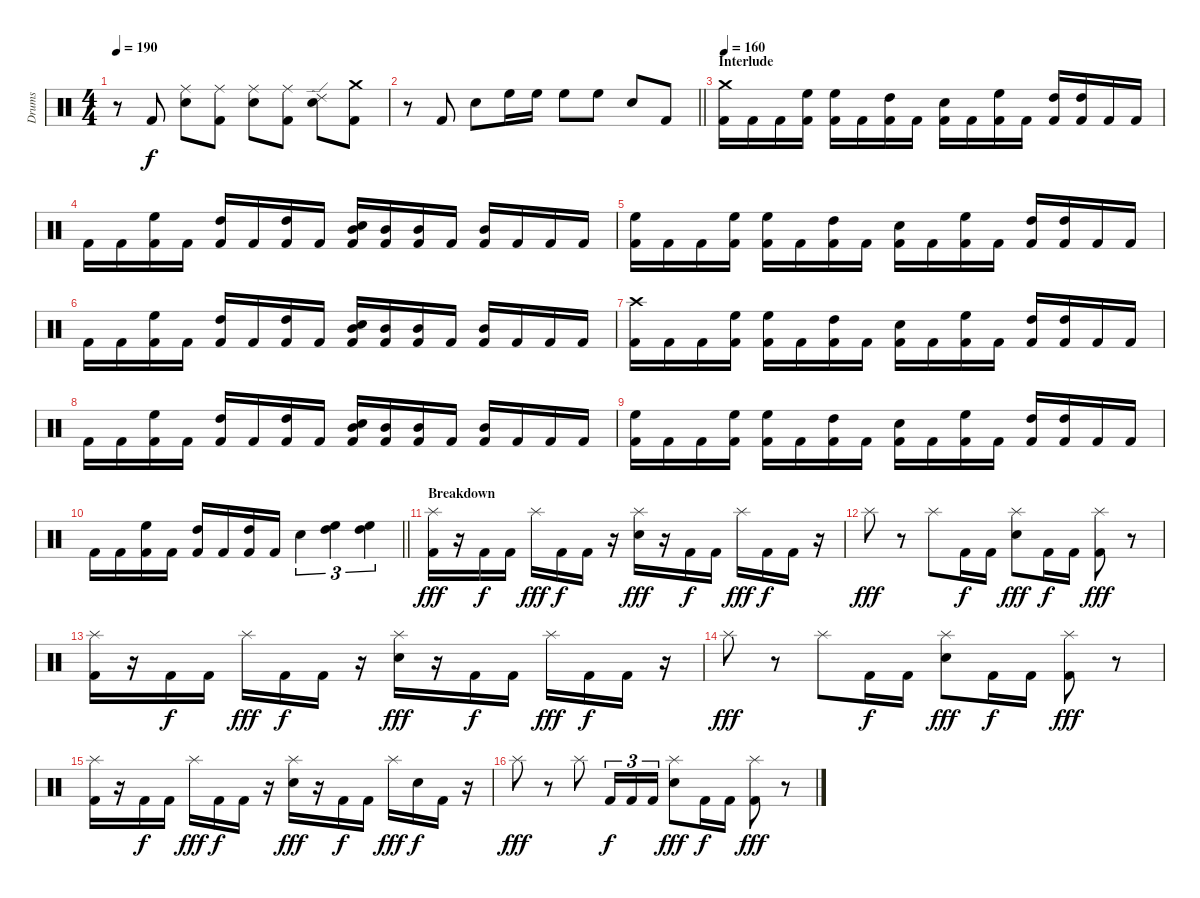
\track ("Drums" "Drums") {instrument percussion}
\staff
\articulation defaults
\ts (4 4)
\tempo 190
\clef neutral
\ks c
r.8{dy f} "Kick (hit) 2".8 ("Ride (middle)" "Electric Snare (hit)").8 ("Ride (middle)" "Kick (hit) 2").8 ("Ride (middle)" "Electric Snare (hit)").8 ("Ride (middle)" "Kick (hit) 2").8 ("Ride (edge) 2" "Electric Snare (hit)").8 ("Crash medium (hit)" "Kick (hit) 2").8 |
\barLineRight lightlight
r.8 "Kick (hit) 2".8 "Electric Snare (hit)".8 "High Floor Tom (hit)".16 "High Floor Tom (hit)".16 "High Floor Tom (hit)".8 "High Floor Tom (hit)".8 "Electric Snare (hit)".8 "Kick (hit) 2".8 |
\section ("" "Interlude")
\tempo 160
("Crash medium (hit)" "Kick (hit) 2").16 "Kick (hit) 2".16 "Kick (hit) 2".16 ("High Floor Tom (hit)" "Kick (hit) 2").16 ("High Floor Tom (hit)" "Kick (hit) 2").16 "Kick (hit) 2".16 ("High Tom (hit)" "Kick (hit) 2").16 "Kick (hit) 2".16 ("Electric Snare (hit)" "Kick (hit) 2").16 "Kick (hit) 2".16 ("High Floor Tom (hit)" "Kick (hit) 2").16 "Kick (hit) 2".16 ("High Tom (hit)" "Kick (hit) 2").16 ("High Tom (hit)" "Kick (hit) 2").16 "Kick (hit) 2".16 "Kick (hit) 2".16 |
"Kick (hit) 2".16 "Kick (hit) 2".16 ("High Floor Tom (hit)" "Kick (hit) 2").16 "Kick (hit) 2".16 ("High Tom (hit)" "Kick (hit) 2").16 "Kick (hit) 2".16 ("High Tom (hit)" "Kick (hit) 2").16 "Kick (hit) 2".16 ("Mid Tom (hit)" "Electric Snare (hit)" "Kick (hit) 2").16 ("Mid Tom (hit)" "Kick (hit) 2").16 ("Mid Tom (hit)" "Kick (hit) 2").16 "Kick (hit) 2".16 ("Mid Tom (hit)" "Kick (hit) 2").16 "Kick (hit) 2".16 "Kick (hit) 2".16 "Kick (hit) 2".16 |
("High Floor Tom (hit)" "Kick (hit) 2").16 "Kick (hit) 2".16 "Kick (hit) 2".16 ("High Floor Tom (hit)" "Kick (hit) 2").16 ("High Floor Tom (hit)" "Kick (hit) 2").16 "Kick (hit) 2".16 ("High Tom (hit)" "Kick (hit) 2").16 "Kick (hit) 2".16 ("Electric Snare (hit)" "Kick (hit) 2").16 "Kick (hit) 2".16 ("High Floor Tom (hit)" "Kick (hit) 2").16 "Kick (hit) 2".16 ("High Tom (hit)" "Kick (hit) 2").16 ("High Tom (hit)" "Kick (hit) 2").16 "Kick (hit) 2".16 "Kick (hit) 2".16 |
"Kick (hit) 2".16 "Kick (hit) 2".16 ("High Floor Tom (hit)" "Kick (hit) 2").16 "Kick (hit) 2".16 ("High Tom (hit)" "Kick (hit) 2").16 "Kick (hit) 2".16 ("High Tom (hit)" "Kick (hit) 2").16 "Kick (hit) 2".16 ("Mid Tom (hit)" "Electric Snare (hit)" "Kick (hit) 2").16 ("Mid Tom (hit)" "Kick (hit) 2").16 ("Mid Tom (hit)" "Kick (hit) 2").16 "Kick (hit) 2".16 ("Mid Tom (hit)" "Kick (hit) 2").16 "Kick (hit) 2".16 "Kick (hit) 2".16 "Kick (hit) 2".16 |
("Crash high (hit)" "Kick (hit) 2").16 "Kick (hit) 2".16 "Kick (hit) 2".16 ("High Floor Tom (hit)" "Kick (hit) 2").16 ("High Floor Tom (hit)" "Kick (hit) 2").16 "Kick (hit) 2".16 ("High Tom (hit)" "Kick (hit) 2").16 "Kick (hit) 2".16 ("Electric Snare (hit)" "Kick (hit) 2").16 "Kick (hit) 2".16 ("High Floor Tom (hit)" "Kick (hit) 2").16 "Kick (hit) 2".16 ("High Tom (hit)" "Kick (hit) 2").16 ("High Tom (hit)" "Kick (hit) 2").16 "Kick (hit) 2".16 "Kick (hit) 2".16 |
"Kick (hit) 2".16 "Kick (hit) 2".16 ("High Floor Tom (hit)" "Kick (hit) 2").16 "Kick (hit) 2".16 ("High Tom (hit)" "Kick (hit) 2").16 "Kick (hit) 2".16 ("High Tom (hit)" "Kick (hit) 2").16 "Kick (hit) 2".16 ("Mid Tom (hit)" "Electric Snare (hit)" "Kick (hit) 2").16 ("Mid Tom (hit)" "Kick (hit) 2").16 ("Mid Tom (hit)" "Kick (hit) 2").16 "Kick (hit) 2".16 ("Mid Tom (hit)" "Kick (hit) 2").16 "Kick (hit) 2".16 "Kick (hit) 2".16 "Kick (hit) 2".16 |
("High Floor Tom (hit)" "Kick (hit) 2").16 "Kick (hit) 2".16 "Kick (hit) 2".16 ("High Floor Tom (hit)" "Kick (hit) 2").16 ("High Floor Tom (hit)" "Kick (hit) 2").16 "Kick (hit) 2".16 ("High Tom (hit)" "Kick (hit) 2").16 "Kick (hit) 2".16 ("Electric Snare (hit)" "Kick (hit) 2").16 "Kick (hit) 2".16 ("High Floor Tom (hit)" "Kick (hit) 2").16 "Kick (hit) 2".16 ("High Tom (hit)" "Kick (hit) 2").16 ("High Tom (hit)" "Kick (hit) 2").16 "Kick (hit) 2".16 "Kick (hit) 2".16 |
\barLineRight lightlight "Kick (hit) 2".16 "Kick (hit) 2".16
("High Floor Tom (hit)" "Kick (hit) 2").16 "Kick (hit) 2".16 ("High Tom (hit)" "Kick (hit) 2").16 "Kick (hit) 2".16 ("High Tom (hit)" "Kick (hit) 2").16 "Kick (hit) 2".16 "Electric Snare (hit)".4{tu (3 2)} ("High Floor Tom (hit)" "High Tom (hit)").4{tu (3 2)} ("High Floor Tom (hit)" "High Tom (hit)").4{tu (3 2)} |
\section ("" "Breakdown")
("Splash (hit)" "Kick (hit) 2").16{dy fff} r.16 "Kick (hit) 2".16{dy f} "Kick (hit) 2".16 "Splash (hit)".16{dy fff} "Kick (hit) 2".16{dy f} "Kick (hit) 2".16 r.16 ("Splash (hit)" "Electric Snare (hit)").16{dy fff} r.16 "Kick (hit) 2".16{dy f} "Kick (hit) 2".16 "Splash (hit)".16{dy fff} "Kick (hit) 2".16{dy f} "Kick (hit) 2".16 r.16 |
"Splash (hit)".8{dy fff} r.8 "Splash (hit)".8 "Kick (hit) 2".16{dy f} "Kick (hit) 2".16 ("Splash (hit)" "Electric Snare (hit)").8{dy fff} "Kick (hit) 2".16{dy f} "Kick (hit) 2".16 ("Splash (hit)" "Kick (hit) 2").8{dy fff} r.8 |
("Splash (hit)" "Kick (hit) 2").16 r.16 "Kick (hit) 2".16{dy f} "Kick (hit) 2".16 "Splash (hit)".16{dy fff} "Kick (hit) 2".16{dy f} "Kick (hit) 2".16 r.16 ("Splash (hit)" "Electric Snare (hit)").16{dy fff} r.16 "Kick (hit) 2".16{dy f} "Kick (hit) 2".16 "Splash (hit)".16{dy fff} "Kick (hit) 2".16{dy f} "Kick (hit) 2".16 r.16 |
"Splash (hit)".8{dy fff} r.8 "Splash (hit)".8 "Kick (hit) 2".16{dy f} "Kick (hit) 2".16 ("Splash (hit)" "Electric Snare (hit)").8{dy fff} "Kick (hit) 2".16{dy f} "Kick (hit) 2".16 ("Splash (hit)" "Kick (hit) 2").8{dy fff} r.8 |
("Splash (hit)" "Kick (hit) 2").16 r.16 "Kick (hit) 2".16{dy f} "Kick (hit) 2".16 "Splash (hit)".16{dy fff} "Kick (hit) 2".16{dy f} "Kick (hit) 2".16 r.16 ("Splash (hit)" "Electric Snare (hit)").16{dy fff} r.16 "Kick (hit) 2".16{dy f} "Kick (hit) 2".16 "Splash (hit)".16{dy fff} "Electric Snare (hit)".16{dy f} "Kick (hit) 2".16 r.16 |
"Splash (hit)".8{dy fff} r.8 "Splash (hit)".8 "Kick (hit) 2".16{tu (3 2) dy f} "Kick (hit) 2".16{tu (3 2)} "Kick (hit) 2".16{tu (3 2)} ("Splash (hit)" "Electric Snare (hit)").8{dy fff} "Kick (hit) 2".16{dy f} "Kick (hit) 2".16 ("Splash (hit)" "Kick (hit) 2").8{dy fff} r.8
